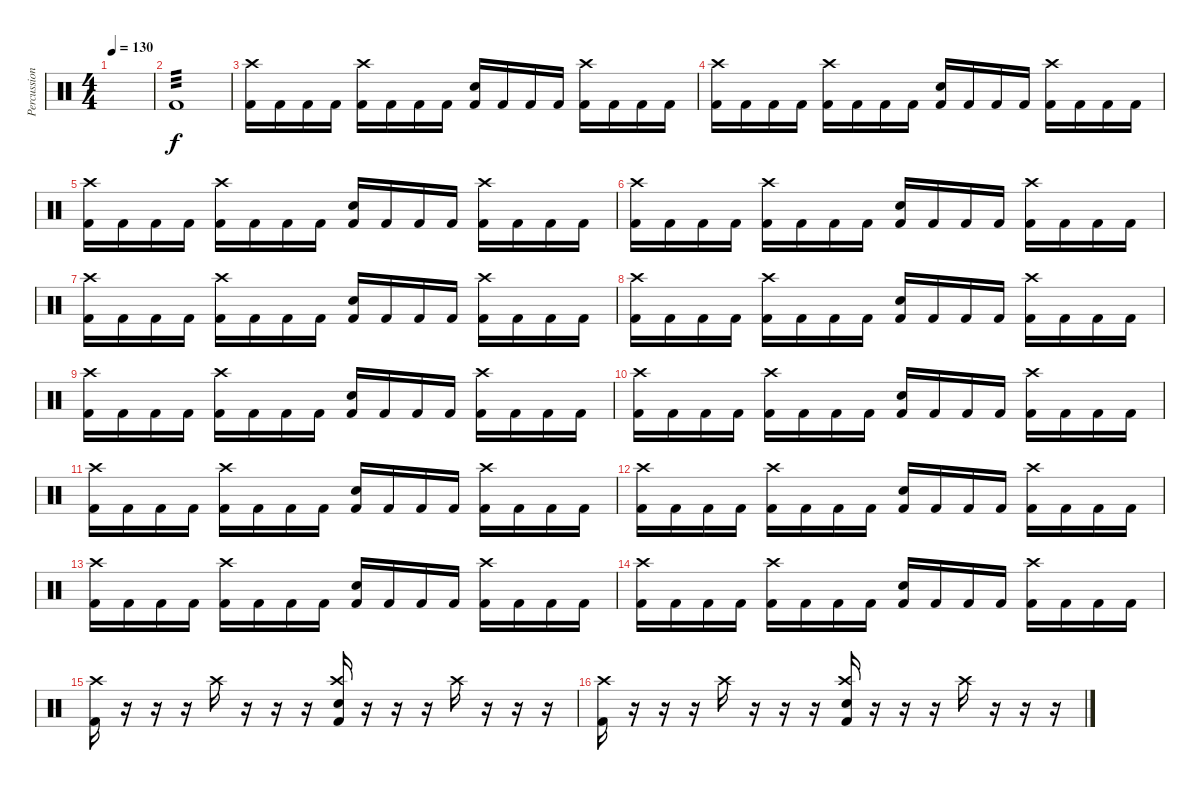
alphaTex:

\track ("Percussion" "Percussion") {instrument percussion}
\staff {score}
\articulation defaults
\ts (4 4)
\tempo 130
\clef neutral
\ks c
|
"Kick (hit) 2".1{tp 3} |
("Crash high (hit)" "Kick (hit) 2").16 "Kick (hit) 2".16 "Kick (hit) 2".16 "Kick (hit) 2".16 ("Crash high (hit)" "Kick (hit) 2").16 "Kick (hit) 2".16 "Kick (hit) 2".16 "Kick (hit) 2".16 ("Electric Snare (hit)" "Kick (hit) 2").16 "Kick (hit) 2".16 "Kick (hit) 2".16 "Kick (hit) 2".16 ("Crash high (hit)" "Kick (hit) 2").16 "Kick (hit) 2".16 "Kick (hit) 2".16 "Kick (hit) 2".16 |
("Crash high (hit)" "Kick (hit) 2").16 "Kick (hit) 2".16 "Kick (hit) 2".16 "Kick (hit) 2".16 ("Crash high (hit)" "Kick (hit) 2").16 "Kick (hit) 2".16 "Kick (hit) 2".16 "Kick (hit) 2".16 ("Electric Snare (hit)" "Kick (hit) 2").16 "Kick (hit) 2".16 "Kick (hit) 2".16 "Kick (hit) 2".16 ("Crash high (hit)" "Kick (hit) 2").16 "Kick (hit) 2".16 "Kick (hit) 2".16 "Kick (hit) 2".16 |
("Crash high (hit)" "Kick (hit) 2").16 "Kick (hit) 2".16 "Kick (hit) 2".16 "Kick (hit) 2".16 ("Crash high (hit)" "Kick (hit) 2").16 "Kick (hit) 2".16 "Kick (hit) 2".16 "Kick (hit) 2".16 ("Electric Snare (hit)" "Kick (hit) 2").16 "Kick (hit) 2".16 "Kick (hit) 2".16 "Kick (hit) 2".16 ("Crash high (hit)" "Kick (hit) 2").16 "Kick (hit) 2".16 "Kick (hit) 2".16 "Kick (hit) 2".16 |
("Crash high (hit)" "Kick (hit) 2").16 "Kick (hit) 2".16 "Kick (hit) 2".16 "Kick (hit) 2".16 ("Crash high (hit)" "Kick (hit) 2").16 "Kick (hit) 2".16 "Kick (hit) 2".16 "Kick (hit) 2".16 ("Electric Snare (hit)" "Kick (hit) 2").16 "Kick (hit) 2".16 "Kick (hit) 2".16 "Kick (hit) 2".16 ("Crash high (hit)" "Kick (hit) 2").16 "Kick (hit) 2".16 "Kick (hit) 2".16 "Kick (hit) 2".16 |
("Crash high (hit)" "Kick (hit) 2").16 "Kick (hit) 2".16 "Kick (hit) 2".16 "Kick (hit) 2".16 ("Crash high (hit)" "Kick (hit) 2").16 "Kick (hit) 2".16 "Kick (hit) 2".16 "Kick (hit) 2".16 ("Electric Snare (hit)" "Kick (hit) 2").16 "Kick (hit) 2".16 "Kick (hit) 2".16 "Kick (hit) 2".16 ("Crash high (hit)" "Kick (hit) 2").16 "Kick (hit) 2".16 "Kick (hit) 2".16 "Kick (hit) 2".16 |
("Crash high (hit)" "Kick (hit) 2").16 "Kick (hit) 2".16 "Kick (hit) 2".16 "Kick (hit) 2".16 ("Crash high (hit)" "Kick (hit) 2").16 "Kick (hit) 2".16 "Kick (hit) 2".16 "Kick (hit) 2".16 ("Electric Snare (hit)" "Kick (hit) 2").16 "Kick (hit) 2".16 "Kick (hit) 2".16 "Kick (hit) 2".16 ("Crash high (hit)" "Kick (hit) 2").16 "Kick (hit) 2".16 "Kick (hit) 2".16 "Kick (hit) 2".16 |
("Crash high (hit)" "Kick (hit) 2").16 "Kick (hit) 2".16 "Kick (hit) 2".16 "Kick (hit) 2".16 ("Crash high (hit)" "Kick (hit) 2").16 "Kick (hit) 2".16 "Kick (hit) 2".16 "Kick (hit) 2".16 ("Electric Snare (hit)" "Kick (hit) 2").16 "Kick (hit) 2".16 "Kick (hit) 2".16 "Kick (hit) 2".16 ("Crash high (hit)" "Kick (hit) 2").16 "Kick (hit) 2".16 "Kick (hit) 2".16 "Kick (hit) 2".16 |
("Crash high (hit)" "Kick (hit) 2").16 "Kick (hit) 2".16 "Kick (hit) 2".16 "Kick (hit) 2".16 ("Crash high (hit)" "Kick (hit) 2").16 "Kick (hit) 2".16 "Kick (hit) 2".16 "Kick (hit) 2".16 ("Electric Snare (hit)" "Kick (hit) 2").16 "Kick (hit) 2".16 "Kick (hit) 2".16 "Kick (hit) 2".16 ("Crash high (hit)" "Kick (hit) 2").16 "Kick (hit) 2".16 "Kick (hit) 2".16 "Kick (hit) 2".16 |
("Crash high (hit)" "Kick (hit) 2").16 "Kick (hit) 2".16 "Kick (hit) 2".16 "Kick (hit) 2".16 ("Crash high (hit)" "Kick (hit) 2").16 "Kick (hit) 2".16 "Kick (hit) 2".16 "Kick (hit) 2".16 ("Electric Snare (hit)" "Kick (hit) 2").16 "Kick (hit) 2".16 "Kick (hit) 2".16 "Kick (hit) 2".16 ("Crash high (hit)" "Kick (hit) 2").16 "Kick (hit) 2".16 "Kick (hit) 2".16 "Kick (hit) 2".16 |
("Crash high (hit)" "Kick (hit) 2").16 "Kick (hit) 2".16 "Kick (hit) 2".16 "Kick (hit) 2".16 ("Crash high (hit)" "Kick (hit) 2").16 "Kick (hit) 2".16 "Kick (hit) 2".16 "Kick (hit) 2".16 ("Electric Snare (hit)" "Kick (hit) 2").16 "Kick (hit) 2".16 "Kick (hit) 2".16 "Kick (hit) 2".16 ("Crash high (hit)" "Kick (hit) 2").16 "Kick (hit) 2".16 "Kick (hit) 2".16 "Kick (hit) 2".16 |
("Crash high (hit)" "Kick (hit) 2").16 "Kick (hit) 2".16 "Kick (hit) 2".16 "Kick (hit) 2".16 ("Crash high (hit)" "Kick (hit) 2").16 "Kick (hit) 2".16 "Kick (hit) 2".16 "Kick (hit) 2".16 ("Electric Snare (hit)" "Kick (hit) 2").16 "Kick (hit) 2".16 "Kick (hit) 2".16 "Kick (hit) 2".16 ("Crash high (hit)" "Kick (hit) 2").16 "Kick (hit) 2".16 "Kick (hit) 2".16 "Kick (hit) 2".16 |
("Crash high (hit)" "Kick (hit) 2").16 "Kick (hit) 2".16 "Kick (hit) 2".16 "Kick (hit) 2".16 ("Crash high (hit)" "Kick (hit) 2").16 "Kick (hit) 2".16 "Kick (hit) 2".16 "Kick (hit) 2".16 ("Electric Snare (hit)" "Kick (hit) 2").16 "Kick (hit) 2".16 "Kick (hit) 2".16 "Kick (hit) 2".16 ("Crash high (hit)" "Kick (hit) 2").16 "Kick (hit) 2".16 "Kick (hit) 2".16 "Kick (hit) 2".16 |
("Crash high (hit)" "Kick (hit) 2").16 r.16 r.16 r.16 "Crash high (hit)".16 r.16 r.16 r.16 ("Crash high (hit)" "Electric Snare (hit)" "Kick (hit) 2").16 r.16 r.16 r.16 "Crash high (hit)".16 r.16 r.16 r.16 |
("Crash high (hit)" "Kick (hit) 2").16 r.16 r.16 r.16 "Crash high (hit)".16 r.16 r.16 r.16 ("Crash high (hit)" "Electric Snare (hit)" "Kick (hit) 2").16 r.16 r.16 r.16 "Crash high (hit)".16 r.16 r.16 r.16
